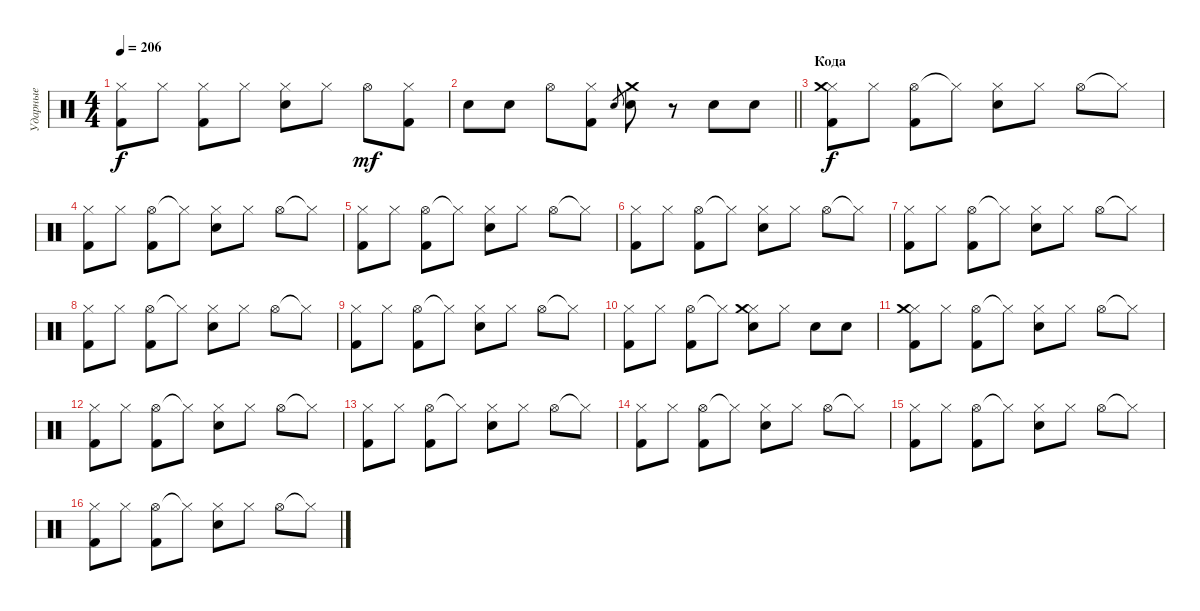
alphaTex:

\track ("Ударные" "Ударные") {instrument percussion}
\staff {score}
\articulation defaults
\ts (4 4)
\tempo 206
\clef neutral
\ks c
("Hi-Hat (closed)" "Kick (hit) 2").8{dy f} "Hi-Hat (closed)".8 ("Hi-Hat (closed)" "Kick (hit) 2").8 "Hi-Hat (closed)".8 ("Hi-Hat (closed)" "Electric Snare (hit)").8 "Hi-Hat (closed)".8 "Hi-Hat (open)".8{dy mf} ("Hi-Hat (closed)" "Kick (hit) 2").8 |
\barLineRight lightlight "Electric Snare (hit)".8 "Electric Snare (hit)".8 "Hi-Hat (open)".8
("Hi-Hat (closed)" "Kick (hit) 2").8 "Electric Snare (hit)".8{gr} ("Crash medium (hit)" "Electric Snare (hit)").8 r.8 "Electric Snare (hit)".8 "Electric Snare (hit)".8 |
\section ("" "Кода")
("Hi-Hat (closed)" "Kick (hit) 2" "Crash medium (hit)").8{dy f} "Hi-Hat (closed)".8 ("Hi-Hat (open)" "Kick (hit) 2").8 "Hi-Hat (closed)"{t}.8 ("Hi-Hat (closed)" "Electric Snare (hit)").8 "Hi-Hat (closed)".8 "Hi-Hat (open)".8 "Hi-Hat (closed)"{t}.8 |
("Hi-Hat (closed)" "Kick (hit) 2").8 "Hi-Hat (closed)".8 ("Hi-Hat (open)" "Kick (hit) 2").8 "Hi-Hat (closed)"{t}.8 ("Hi-Hat (closed)" "Electric Snare (hit)").8 "Hi-Hat (closed)".8 "Hi-Hat (open)".8 "Hi-Hat (closed)"{t}.8 |
("Hi-Hat (closed)" "Kick (hit) 2").8 "Hi-Hat (closed)".8 ("Hi-Hat (open)" "Kick (hit) 2").8 "Hi-Hat (closed)"{t}.8 ("Hi-Hat (closed)" "Electric Snare (hit)").8 "Hi-Hat (closed)".8 "Hi-Hat (open)".8 "Hi-Hat (closed)"{t}.8 |
("Hi-Hat (closed)" "Kick (hit) 2").8 "Hi-Hat (closed)".8 ("Hi-Hat (open)" "Kick (hit) 2").8 "Hi-Hat (closed)"{t}.8 ("Hi-Hat (closed)" "Electric Snare (hit)").8 "Hi-Hat (closed)".8 "Hi-Hat (open)".8 "Hi-Hat (closed)"{t}.8 |
("Hi-Hat (closed)" "Kick (hit) 2").8 "Hi-Hat (closed)".8 ("Hi-Hat (open)" "Kick (hit) 2").8 "Hi-Hat (closed)"{t}.8 ("Hi-Hat (closed)" "Electric Snare (hit)").8 "Hi-Hat (closed)".8 "Hi-Hat (open)".8 "Hi-Hat (closed)"{t}.8 |
("Hi-Hat (closed)" "Kick (hit) 2").8 "Hi-Hat (closed)".8 ("Hi-Hat (open)" "Kick (hit) 2").8 "Hi-Hat (closed)"{t}.8 ("Hi-Hat (closed)" "Electric Snare (hit)").8 "Hi-Hat (closed)".8 "Hi-Hat (open)".8 "Hi-Hat (closed)"{t}.8 |
("Hi-Hat (closed)" "Kick (hit) 2").8 "Hi-Hat (closed)".8 ("Hi-Hat (open)" "Kick (hit) 2").8 "Hi-Hat (closed)"{t}.8 ("Hi-Hat (closed)" "Electric Snare (hit)").8 "Hi-Hat (closed)".8 "Hi-Hat (open)".8 "Hi-Hat (closed)"{t}.8 |
("Hi-Hat (closed)" "Kick (hit) 2").8 "Hi-Hat (closed)".8 ("Hi-Hat (open)" "Kick (hit) 2").8 "Hi-Hat (closed)"{t}.8 ("Hi-Hat (closed)" "Electric Snare (hit)" "Crash medium (hit)").8 "Hi-Hat (closed)".8 "Electric Snare (hit)".8 "Electric Snare (hit)".8 |
("Hi-Hat (closed)" "Kick (hit) 2" "Crash medium (hit)").8 "Hi-Hat (closed)".8 ("Hi-Hat (open)" "Kick (hit) 2").8 "Hi-Hat (closed)"{t}.8 ("Hi-Hat (closed)" "Electric Snare (hit)").8 "Hi-Hat (closed)".8 "Hi-Hat (open)".8 "Hi-Hat (closed)"{t}.8 |
("Hi-Hat (closed)" "Kick (hit) 2").8 "Hi-Hat (closed)".8 ("Hi-Hat (open)" "Kick (hit) 2").8 "Hi-Hat (closed)"{t}.8 ("Hi-Hat (closed)" "Electric Snare (hit)").8 "Hi-Hat (closed)".8 "Hi-Hat (open)".8 "Hi-Hat (closed)"{t}.8 |
("Hi-Hat (closed)" "Kick (hit) 2").8 "Hi-Hat (closed)".8 ("Hi-Hat (open)" "Kick (hit) 2").8 "Hi-Hat (closed)"{t}.8 ("Hi-Hat (closed)" "Electric Snare (hit)").8 "Hi-Hat (closed)".8 "Hi-Hat (open)".8 "Hi-Hat (closed)"{t}.8 |
("Hi-Hat (closed)" "Kick (hit) 2").8 "Hi-Hat (closed)".8 ("Hi-Hat (open)" "Kick (hit) 2").8 "Hi-Hat (closed)"{t}.8 ("Hi-Hat (closed)" "Electric Snare (hit)").8 "Hi-Hat (closed)".8 "Hi-Hat (open)".8 "Hi-Hat (closed)"{t}.8 |
("Hi-Hat (closed)" "Kick (hit) 2").8 "Hi-Hat (closed)".8 ("Hi-Hat (open)" "Kick (hit) 2").8 "Hi-Hat (closed)"{t}.8 ("Hi-Hat (closed)" "Electric Snare (hit)").8 "Hi-Hat (closed)".8 "Hi-Hat (open)".8 "Hi-Hat (closed)"{t}.8 |
("Hi-Hat (closed)" "Kick (hit) 2").8 "Hi-Hat (closed)".8 ("Hi-Hat (open)" "Kick (hit) 2").8 "Hi-Hat (closed)"{t}.8 ("Hi-Hat (closed)" "Electric Snare (hit)").8 "Hi-Hat (closed)".8 "Hi-Hat (open)".8 "Hi-Hat (closed)"{t}.8
